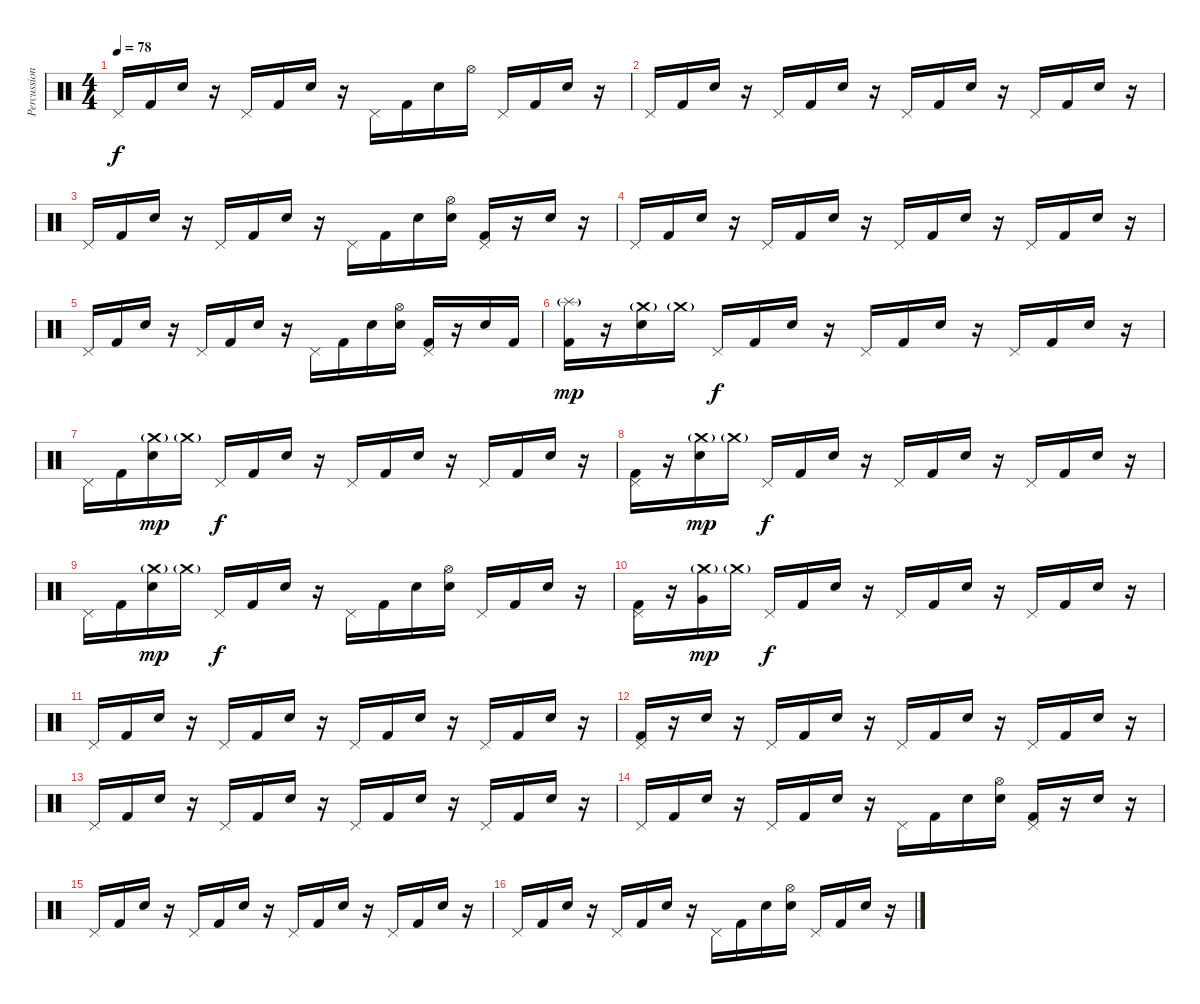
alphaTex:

\track ("Percussion" "Percussion") {instrument percussion}
\staff {score}
\articulation defaults
\ts (4 4)
\tempo 78
\clef neutral
\ks c "Pedal Hi-Hat (hit)".16{dy f} "Kick (hit) 2".16 "Electric Snare (hit)".16
r.16 "Pedal Hi-Hat (hit)".16 "Kick (hit) 2".16 "Electric Snare (hit)".16 r.16 "Pedal Hi-Hat (hit)".16 "Kick (hit) 2".16 "Electric Snare (hit)".16 "Hi-Hat (open)".16 "Pedal Hi-Hat (hit)".16 "Kick (hit) 2".16 "Electric Snare (hit)".16 r.16 |
"Pedal Hi-Hat (hit)".16 "Kick (hit) 2".16 "Electric Snare (hit)".16 r.16 "Pedal Hi-Hat (hit)".16 "Kick (hit) 2".16 "Electric Snare (hit)".16 r.16 "Pedal Hi-Hat (hit)".16 "Kick (hit) 2".16 "Electric Snare (hit)".16 r.16 "Pedal Hi-Hat (hit)".16 "Kick (hit) 2".16 "Electric Snare (hit)".16 r.16 |
"Pedal Hi-Hat (hit)".16 "Kick (hit) 2".16 "Electric Snare (hit)".16 r.16 "Pedal Hi-Hat (hit)".16 "Kick (hit) 2".16 "Electric Snare (hit)".16 r.16 "Pedal Hi-Hat (hit)".16 "Kick (hit) 2".16 "Electric Snare (hit)".16 ("Hi-Hat (open)" "Electric Snare (hit)").16 ("Pedal Hi-Hat (hit)" "Kick (hit) 2").16 r.16 "Electric Snare (hit)".16 r.16 |
"Pedal Hi-Hat (hit)".16 "Kick (hit) 2".16 "Electric Snare (hit)".16 r.16 "Pedal Hi-Hat (hit)".16 "Kick (hit) 2".16 "Electric Snare (hit)".16 r.16 "Pedal Hi-Hat (hit)".16 "Kick (hit) 2".16 "Electric Snare (hit)".16 r.16 "Pedal Hi-Hat (hit)".16 "Kick (hit) 2".16 "Electric Snare (hit)".16 r.16 |
"Pedal Hi-Hat (hit)".16 "Kick (hit) 2".16 "Electric Snare (hit)".16 r.16 "Pedal Hi-Hat (hit)".16 "Kick (hit) 2".16 "Electric Snare (hit)".16 r.16 "Pedal Hi-Hat (hit)".16 "Kick (hit) 2".16 "Electric Snare (hit)".16 ("Hi-Hat (open)" "Electric Snare (hit)").16 ("Pedal Hi-Hat (hit)" "Kick (hit) 2").16 r.16 "Electric Snare (hit)".16 "Kick (hit) 2".16 |
("Splash (hit)"{g} "Kick (hit) 2").16{dy mp} r.16 ("Crash medium (hit)"{g} "Electric Snare (hit)").16 "Crash medium (hit)"{g}.16 "Pedal Hi-Hat (hit)".16{dy f} "Kick (hit) 2".16 "Electric Snare (hit)".16 r.16 "Pedal Hi-Hat (hit)".16 "Kick (hit) 2".16 "Electric Snare (hit)".16 r.16 "Pedal Hi-Hat (hit)".16 "Kick (hit) 2".16 "Electric Snare (hit)".16 r.16 |
"Pedal Hi-Hat (hit)".16 "Kick (hit) 2".16 ("Crash medium (hit)"{g} "Electric Snare (hit)").16{dy mp} "Crash medium (hit)"{g}.16 "Pedal Hi-Hat (hit)".16{dy f} "Kick (hit) 2".16 "Electric Snare (hit)".16 r.16 "Pedal Hi-Hat (hit)".16 "Kick (hit) 2".16 "Electric Snare (hit)".16 r.16 "Pedal Hi-Hat (hit)".16 "Kick (hit) 2".16 "Electric Snare (hit)".16 r.16 |
("Pedal Hi-Hat (hit)" "Kick (hit) 2").16 r.16 ("Crash medium (hit)"{g} "Electric Snare (hit)").16{dy mp} "Crash medium (hit)"{g}.16 "Pedal Hi-Hat (hit)".16{dy f} "Kick (hit) 2".16 "Electric Snare (hit)".16 r.16 "Pedal Hi-Hat (hit)".16 "Kick (hit) 2".16 "Electric Snare (hit)".16 r.16 "Pedal Hi-Hat (hit)".16 "Kick (hit) 2".16 "Electric Snare (hit)".16 r.16 |
"Pedal Hi-Hat (hit)".16 "Kick (hit) 2".16 ("Crash medium (hit)"{g} "Electric Snare (hit)").16{dy mp} "Crash medium (hit)"{g}.16 "Pedal Hi-Hat (hit)".16{dy f} "Kick (hit) 2".16 "Electric Snare (hit)".16 r.16 "Pedal Hi-Hat (hit)".16 "Kick (hit) 2".16 "Electric Snare (hit)".16 ("Hi-Hat (open)" "Electric Snare (hit)").16 "Pedal Hi-Hat (hit)".16 "Kick (hit) 2".16 "Electric Snare (hit)".16 r.16 |
("Pedal Hi-Hat (hit)" "Kick (hit) 2").16 r.16 ("Crash medium (hit)"{g} "Very Low Tom (hit)").16{dy mp} "Crash medium (hit)"{g}.16 "Pedal Hi-Hat (hit)".16{dy f} "Kick (hit) 2".16 "Electric Snare (hit)".16 r.16 "Pedal Hi-Hat (hit)".16 "Kick (hit) 2".16 "Electric Snare (hit)".16 r.16 "Pedal Hi-Hat (hit)".16 "Kick (hit) 2".16 "Electric Snare (hit)".16 r.16 |
"Pedal Hi-Hat (hit)".16 "Kick (hit) 2".16 "Electric Snare (hit)".16 r.16 "Pedal Hi-Hat (hit)".16 "Kick (hit) 2".16 "Electric Snare (hit)".16 r.16 "Pedal Hi-Hat (hit)".16 "Kick (hit) 2".16 "Electric Snare (hit)".16 r.16 "Pedal Hi-Hat (hit)".16 "Kick (hit) 2".16 "Electric Snare (hit)".16 r.16 |
("Pedal Hi-Hat (hit)" "Kick (hit) 2").16 r.16 "Electric Snare (hit)".16 r.16 "Pedal Hi-Hat (hit)".16 "Kick (hit) 2".16 "Electric Snare (hit)".16 r.16 "Pedal Hi-Hat (hit)".16 "Kick (hit) 2".16 "Electric Snare (hit)".16 r.16 "Pedal Hi-Hat (hit)".16 "Kick (hit) 2".16 "Electric Snare (hit)".16 r.16 |
"Pedal Hi-Hat (hit)".16 "Kick (hit) 2".16 "Electric Snare (hit)".16 r.16 "Pedal Hi-Hat (hit)".16 "Kick (hit) 2".16 "Electric Snare (hit)".16 r.16 "Pedal Hi-Hat (hit)".16 "Kick (hit) 2".16 "Electric Snare (hit)".16 r.16 "Pedal Hi-Hat (hit)".16 "Kick (hit) 2".16 "Electric Snare (hit)".16 r.16 |
"Pedal Hi-Hat (hit)".16 "Kick (hit) 2".16 "Electric Snare (hit)".16 r.16 "Pedal Hi-Hat (hit)".16 "Kick (hit) 2".16 "Electric Snare (hit)".16 r.16 "Pedal Hi-Hat (hit)".16 "Kick (hit) 2".16 "Electric Snare (hit)".16 ("Hi-Hat (open)" "Electric Snare (hit)").16 ("Pedal Hi-Hat (hit)" "Kick (hit) 2").16 r.16 "Electric Snare (hit)".16 r.16 |
"Pedal Hi-Hat (hit)".16 "Kick (hit) 2".16 "Electric Snare (hit)".16 r.16 "Pedal Hi-Hat (hit)".16 "Kick (hit) 2".16 "Electric Snare (hit)".16 r.16 "Pedal Hi-Hat (hit)".16 "Kick (hit) 2".16 "Electric Snare (hit)".16 r.16 "Pedal Hi-Hat (hit)".16 "Kick (hit) 2".16 "Electric Snare (hit)".16 r.16 |
"Pedal Hi-Hat (hit)".16 "Kick (hit) 2".16 "Electric Snare (hit)".16 r.16 "Pedal Hi-Hat (hit)".16 "Kick (hit) 2".16 "Electric Snare (hit)".16 r.16 "Pedal Hi-Hat (hit)".16 "Kick (hit) 2".16 "Electric Snare (hit)".16 ("Hi-Hat (open)" "Electric Snare (hit)").16 "Pedal Hi-Hat (hit)".16 "Kick (hit) 2".16 "Electric Snare (hit)".16 r.16
